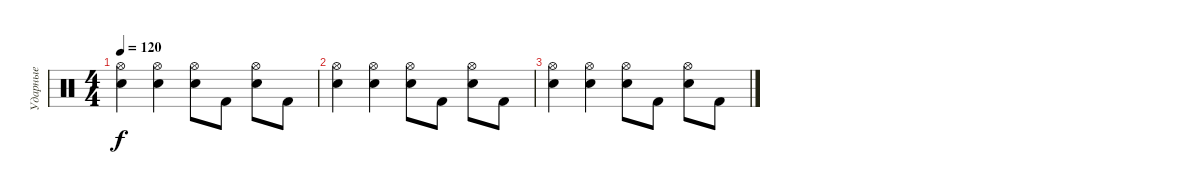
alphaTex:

\track ("Ударные" "Ударные") {instrument percussion}
\staff {score}
\articulation defaults
\ts (4 4)
\tempo 120
\clef neutral
\ks c
("Hi-Hat (open)" "Electric Snare (hit)").4{dy f} ("Hi-Hat (open)" "Electric Snare (hit)").4 ("Hi-Hat (open)" "Electric Snare (hit)").8 "Kick (hit) 2".8 ("Hi-Hat (open)" "Electric Snare (hit)").8 "Kick (hit) 2".8 |
("Hi-Hat (open)" "Electric Snare (hit)").4 ("Hi-Hat (open)" "Electric Snare (hit)").4 ("Hi-Hat (open)" "Electric Snare (hit)").8 "Kick (hit) 2".8 ("Hi-Hat (open)" "Electric Snare (hit)").8 "Kick (hit) 2".8 |
("Hi-Hat (open)" "Electric Snare (hit)").4 ("Hi-Hat (open)" "Electric Snare (hit)").4 ("Hi-Hat (open)" "Electric Snare (hit)").8 "Kick (hit) 2".8 ("Hi-Hat (open)" "Electric Snare (hit)").8 "Kick (hit) 2".8
